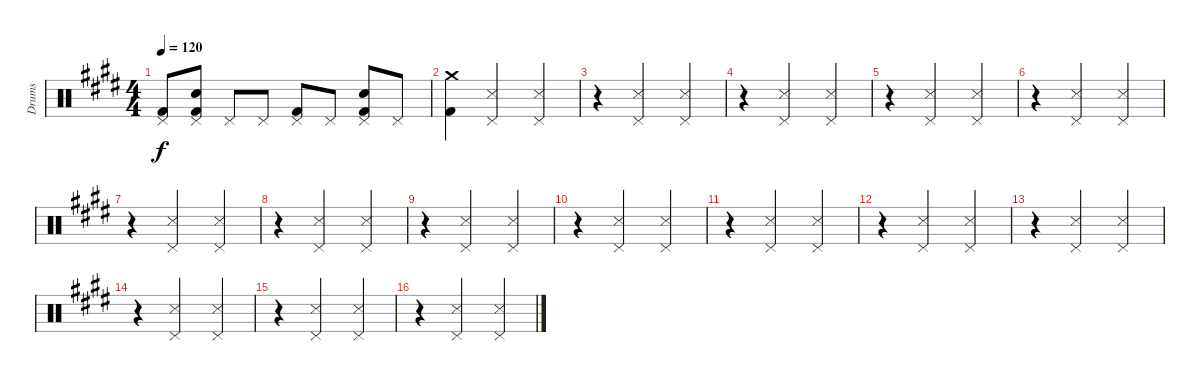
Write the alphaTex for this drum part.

\track ("Drums" "Drums") {instrument percussion}
\staff {score}
\articulation defaults
\ts (4 4)
\tempo 120
\clef neutral
\ks e
("Pedal Hi-Hat (hit)" "Kick (hit) 2").8{dy f} ("Pedal Hi-Hat (hit)" "Snare (hit) 2" "Kick (hit) 2").8 "Pedal Hi-Hat (hit)".8 "Pedal Hi-Hat (hit)".8 ("Pedal Hi-Hat (hit)" "Kick (hit) 2").8 "Pedal Hi-Hat (hit)".8 ("Pedal Hi-Hat (hit)" "Snare (hit) 2" "Kick (hit) 2").8 "Pedal Hi-Hat (hit)".8 |
("Crash medium (hit)" "Kick (hit) 2").4 ("Pedal Hi-Hat (hit)" "Snare (side stick) 3").2 ("Pedal Hi-Hat (hit)" "Snare (side stick) 3").4 |
r.4 ("Pedal Hi-Hat (hit)" "Snare (side stick) 3").2 ("Pedal Hi-Hat (hit)" "Snare (side stick) 3").4 |
r.4 ("Pedal Hi-Hat (hit)" "Snare (side stick) 3").2 ("Pedal Hi-Hat (hit)" "Snare (side stick) 3").4 |
r.4 ("Pedal Hi-Hat (hit)" "Snare (side stick) 3").2 ("Pedal Hi-Hat (hit)" "Snare (side stick) 3").4 |
r.4 ("Pedal Hi-Hat (hit)" "Snare (side stick) 3").2 ("Pedal Hi-Hat (hit)" "Snare (side stick) 3").4 |
r.4 ("Pedal Hi-Hat (hit)" "Snare (side stick) 3").2 ("Pedal Hi-Hat (hit)" "Snare (side stick) 3").4 |
r.4 ("Pedal Hi-Hat (hit)" "Snare (side stick) 3").2 ("Pedal Hi-Hat (hit)" "Snare (side stick) 3").4 |
r.4 ("Pedal Hi-Hat (hit)" "Snare (side stick) 3").2 ("Pedal Hi-Hat (hit)" "Snare (side stick) 3").4 |
r.4 ("Pedal Hi-Hat (hit)" "Snare (side stick) 3").2 ("Pedal Hi-Hat (hit)" "Snare (side stick) 3").4 |
r.4 ("Pedal Hi-Hat (hit)" "Snare (side stick) 3").2 ("Pedal Hi-Hat (hit)" "Snare (side stick) 3").4 |
r.4 ("Pedal Hi-Hat (hit)" "Snare (side stick) 3").2 ("Pedal Hi-Hat (hit)" "Snare (side stick) 3").4 |
r.4 ("Pedal Hi-Hat (hit)" "Snare (side stick) 3").2 ("Pedal Hi-Hat (hit)" "Snare (side stick) 3").4 |
r.4 ("Pedal Hi-Hat (hit)" "Snare (side stick) 3").2 ("Pedal Hi-Hat (hit)" "Snare (side stick) 3").4 |
r.4 ("Pedal Hi-Hat (hit)" "Snare (side stick) 3").2 ("Pedal Hi-Hat (hit)" "Snare (side stick) 3").4 |
r.4 ("Pedal Hi-Hat (hit)" "Snare (side stick) 3").2 ("Pedal Hi-Hat (hit)" "Snare (side stick) 3").4
